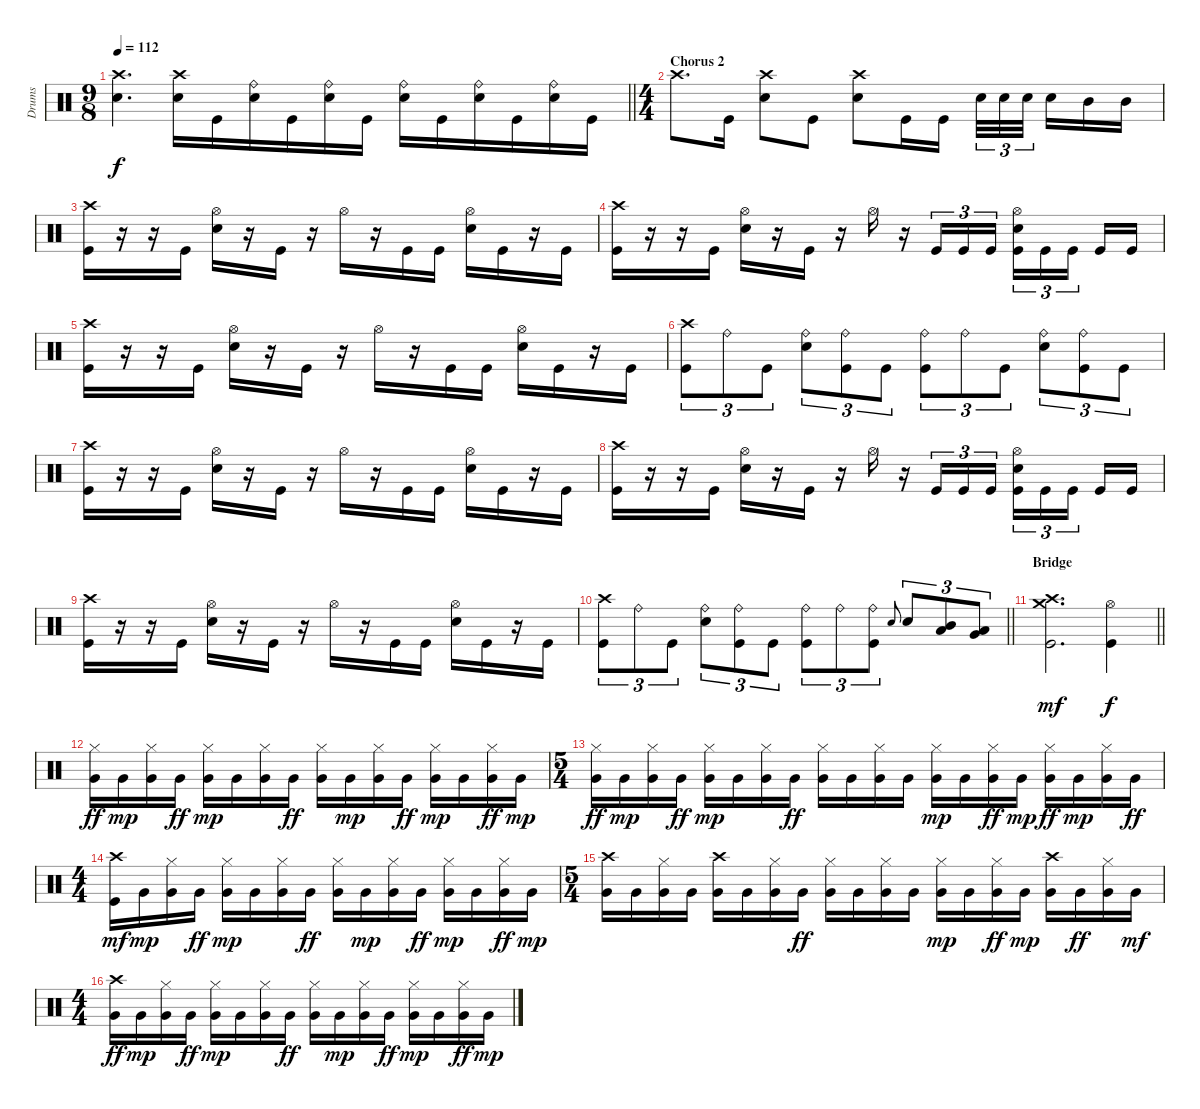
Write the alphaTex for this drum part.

\track ("Drums" "Drums") {instrument percussion}
\staff {score}
\articulation defaults
\ts (9 8)
\tempo 112
\clef neutral
\barLineRight lightlight
\ks c
("Crash high (hit)" "Snare (hit) 2").4{d dy f} ("Crash high (hit)" "Snare (hit) 2").16 "Kick (hit)".16 ("Ride (bell)" "Snare (hit) 2").16 "Kick (hit)".16 ("Ride (bell)" "Snare (hit) 2").16 "Kick (hit)".16 ("Ride (bell)" "Snare (hit) 2").16 "Kick (hit)".16 ("Ride (bell)" "Snare (hit) 2").16 "Kick (hit)".16 ("Ride (bell)" "Snare (hit) 2").16 "Kick (hit)".16 |
\ts (4 4)
\section ("" "Chorus 2")
"Crash high (hit)".8{d} "Kick (hit)".16 ("Crash high (hit)" "Snare (hit) 2").8 "Kick (hit)".8 ("Crash high (hit)" "Snare (hit) 2").8 "Kick (hit)".16 "Kick (hit)".16 "Snare (hit) 2".32{tu (3 2)} "Snare (hit) 2".32{tu (3 2)} "Snare (hit) 2".32{tu (3 2) beam splitsecondary} "Snare (hit) 2".16 "Mid Tom (hit)".16 "Mid Tom (hit)".16 |
("Crash high (hit)" "Kick (hit)").16 r.16 r.16 "Kick (hit)".16 ("Hi-Hat (open)" "Snare (hit) 2").16 r.16 "Kick (hit)".16 r.16 "Hi-Hat (open)".16 r.16 "Kick (hit)".16 "Kick (hit)".16 ("Hi-Hat (open)" "Snare (hit) 2").16 "Kick (hit)".16 r.16 "Kick (hit)".16 |
("Crash high (hit)" "Kick (hit)").16 r.16 r.16 "Kick (hit)".16 ("Hi-Hat (open)" "Snare (hit) 2").16 r.16 "Kick (hit)".16 r.16 "Hi-Hat (open)".16 r.16 "Kick (hit)".16{tu (3 2)} "Kick (hit)".16{tu (3 2)} "Kick (hit)".16{tu (3 2)} ("Hi-Hat (open)" "Snare (hit) 2" "Kick (hit)").16{tu (3 2)} "Kick (hit)".16{tu (3 2)} "Kick (hit)".16{tu (3 2) beam splitsecondary} "Kick (hit)".16 "Kick (hit)".16 |
("Crash high (hit)" "Kick (hit)").16 r.16 r.16 "Kick (hit)".16 ("Hi-Hat (open)" "Snare (hit) 2").16 r.16 "Kick (hit)".16 r.16 "Hi-Hat (open)".16 r.16 "Kick (hit)".16 "Kick (hit)".16 ("Hi-Hat (open)" "Snare (hit) 2").16 "Kick (hit)".16 r.16 "Kick (hit)".16 |
("Crash high (hit)" "Kick (hit)").8{tu (3 2)} "Ride (bell)".8{tu (3 2)} "Kick (hit)".8{tu (3 2)} ("Ride (bell)" "Snare (hit) 2").8{tu (3 2)} ("Ride (bell)" "Kick (hit)").8{tu (3 2)} "Kick (hit)".8{tu (3 2)} ("Ride (bell)" "Kick (hit)").8{tu (3 2)} "Ride (bell)".8{tu (3 2)} "Kick (hit)".8{tu (3 2)} ("Ride (bell)" "Snare (hit) 2").8{tu (3 2)} ("Ride (bell)" "Kick (hit)").8{tu (3 2)} "Kick (hit)".8{tu (3 2)} |
("Crash high (hit)" "Kick (hit)").16 r.16 r.16 "Kick (hit)".16 ("Hi-Hat (open)" "Snare (hit) 2").16 r.16 "Kick (hit)".16 r.16 "Hi-Hat (open)".16 r.16 "Kick (hit)".16 "Kick (hit)".16 ("Hi-Hat (open)" "Snare (hit) 2").16 "Kick (hit)".16 r.16 "Kick (hit)".16 |
("Crash high (hit)" "Kick (hit)").16 r.16 r.16 "Kick (hit)".16 ("Hi-Hat (open)" "Snare (hit) 2").16 r.16 "Kick (hit)".16 r.16 "Hi-Hat (open)".16 r.16 "Kick (hit)".16{tu (3 2)} "Kick (hit)".16{tu (3 2)} "Kick (hit)".16{tu (3 2)} ("Hi-Hat (open)" "Snare (hit) 2" "Kick (hit)").16{tu (3 2)} "Kick (hit)".16{tu (3 2)} "Kick (hit)".16{tu (3 2) beam splitsecondary} "Kick (hit)".16 "Kick (hit)".16 |
("Crash high (hit)" "Kick (hit)").16 r.16 r.16 "Kick (hit)".16 ("Hi-Hat (open)" "Snare (hit) 2").16 r.16 "Kick (hit)".16 r.16 "Hi-Hat (open)".16 r.16 "Kick (hit)".16 "Kick (hit)".16 ("Hi-Hat (open)" "Snare (hit) 2").16 "Kick (hit)".16 r.16 "Kick (hit)".16 |
\barLineRight lightlight
("Crash high (hit)" "Kick (hit)").8{tu (3 2)} "Ride (bell)".8{tu (3 2)} "Kick (hit)".8{tu (3 2)} ("Ride (bell)" "Snare (hit) 2").8{tu (3 2)} ("Ride (bell)" "Kick (hit)").8{tu (3 2)} "Kick (hit)".8{tu (3 2)} ("Ride (bell)" "Kick (hit)").8{tu (3 2)} "Ride (bell)".8{tu (3 2)} ("Ride (bell)" "Kick (hit)").8{tu (3 2)} "Snare (hit) 2".8{gr onbeat} "Snare (hit) 2".8{tu (3 2)} ("Mid Tom (hit)" "Low Tom (hit)").8{tu (3 2)} ("Low Tom (hit)" "Very Low Tom (hit)").8{tu (3 2)} |
\section ("" "Bridge")
\barLineRight lightlight
("Crash high (hit)" "Crash medium (hit)" "Kick (hit)").2{d dy mf} ("Hi-Hat (open)" "Kick (hit)").4{dy f} |
("Hi-Hat (closed)" "Very Low Tom (hit)").16{dy ff} "Very Low Tom (hit)".16{dy mp} ("Hi-Hat (closed)" "Very Low Tom (hit)").16 "Very Low Tom (hit)".16{dy ff} ("Hi-Hat (closed)" "Very Low Tom (hit)").16{dy mp} "Very Low Tom (hit)".16 ("Hi-Hat (closed)" "Very Low Tom (hit)").16 "Very Low Tom (hit)".16{dy ff} ("Hi-Hat (closed)" "Very Low Tom (hit)").16 "Very Low Tom (hit)".16{dy mp} ("Hi-Hat (closed)" "Very Low Tom (hit)").16 "Very Low Tom (hit)".16{dy ff} ("Hi-Hat (closed)" "Very Low Tom (hit)").16{dy mp} "Very Low Tom (hit)".16 ("Hi-Hat (closed)" "Very Low Tom (hit)").16{dy ff} "Very Low Tom (hit)".16{dy mp} |
\ts (5 4)
("Hi-Hat (closed)" "Very Low Tom (hit)").16{dy ff} "Very Low Tom (hit)".16{dy mp} ("Hi-Hat (closed)" "Very Low Tom (hit)").16 "Very Low Tom (hit)".16{dy ff} ("Hi-Hat (closed)" "Very Low Tom (hit)").16{dy mp} "Very Low Tom (hit)".16 ("Hi-Hat (closed)" "Very Low Tom (hit)").16 "Very Low Tom (hit)".16{dy ff} ("Hi-Hat (closed)" "Very Low Tom (hit)").16 "Very Low Tom (hit)".16 ("Hi-Hat (closed)" "Very Low Tom (hit)").16 "Very Low Tom (hit)".16 ("Hi-Hat (closed)" "Very Low Tom (hit)").16{dy mp} "Very Low Tom (hit)".16 ("Hi-Hat (closed)" "Very Low Tom (hit)").16{dy ff} "Very Low Tom (hit)".16{dy mp} ("Hi-Hat (closed)" "Very Low Tom (hit)").16{dy ff} "Very Low Tom (hit)".16{dy mp} ("Hi-Hat (closed)" "Very Low Tom (hit)").16 "Very Low Tom (hit)".16{dy ff} |
\ts (4 4)
("Crash high (hit)" "Kick (hit)").16{dy mf} "Very Low Tom (hit)".16{dy mp} ("Hi-Hat (closed)" "Very Low Tom (hit)").16 "Very Low Tom (hit)".16{dy ff} ("Hi-Hat (closed)" "Very Low Tom (hit)").16{dy mp} "Very Low Tom (hit)".16 ("Hi-Hat (closed)" "Very Low Tom (hit)").16 "Very Low Tom (hit)".16{dy ff} ("Hi-Hat (closed)" "Very Low Tom (hit)").16 "Very Low Tom (hit)".16{dy mp} ("Hi-Hat (closed)" "Very Low Tom (hit)").16 "Very Low Tom (hit)".16{dy ff} ("Hi-Hat (closed)" "Very Low Tom (hit)").16{dy mp} "Very Low Tom (hit)".16 ("Hi-Hat (closed)" "Very Low Tom (hit)").16{dy ff} "Very Low Tom (hit)".16{dy mp} |
\ts (5 4)
("Crash high (hit)" "Very Low Tom (hit)").16 "Very Low Tom (hit)".16 ("Hi-Hat (closed)" "Very Low Tom (hit)").16 "Very Low Tom (hit)".16 ("Crash high (hit)" "Very Low Tom (hit)").16 "Very Low Tom (hit)".16 ("Hi-Hat (closed)" "Very Low Tom (hit)").16 "Very Low Tom (hit)".16{dy ff} ("Hi-Hat (closed)" "Very Low Tom (hit)").16 "Very Low Tom (hit)".16 ("Hi-Hat (closed)" "Very Low Tom (hit)").16 "Very Low Tom (hit)".16 ("Hi-Hat (closed)" "Very Low Tom (hit)").16{dy mp} "Very Low Tom (hit)".16 ("Hi-Hat (closed)" "Very Low Tom (hit)").16{dy ff} "Very Low Tom (hit)".16{dy mp} ("Crash high (hit)" "Very Low Tom (hit)").16 "Very Low Tom (hit)".16{dy ff} ("Hi-Hat (closed)" "Very Low Tom (hit)").16 "Very Low Tom (hit)".16{dy mf} |
\ts (4 4)
("Crash high (hit)" "Very Low Tom (hit)").16{dy ff} "Very Low Tom (hit)".16{dy mp} ("Hi-Hat (closed)" "Very Low Tom (hit)").16 "Very Low Tom (hit)".16{dy ff} ("Hi-Hat (closed)" "Very Low Tom (hit)").16{dy mp} "Very Low Tom (hit)".16 ("Hi-Hat (closed)" "Very Low Tom (hit)").16 "Very Low Tom (hit)".16{dy ff} ("Hi-Hat (closed)" "Very Low Tom (hit)").16 "Very Low Tom (hit)".16{dy mp} ("Hi-Hat (closed)" "Very Low Tom (hit)").16 "Very Low Tom (hit)".16{dy ff} ("Hi-Hat (closed)" "Very Low Tom (hit)").16{dy mp} "Very Low Tom (hit)".16 ("Hi-Hat (closed)" "Very Low Tom (hit)").16{dy ff} "Very Low Tom (hit)".16{dy mp}
